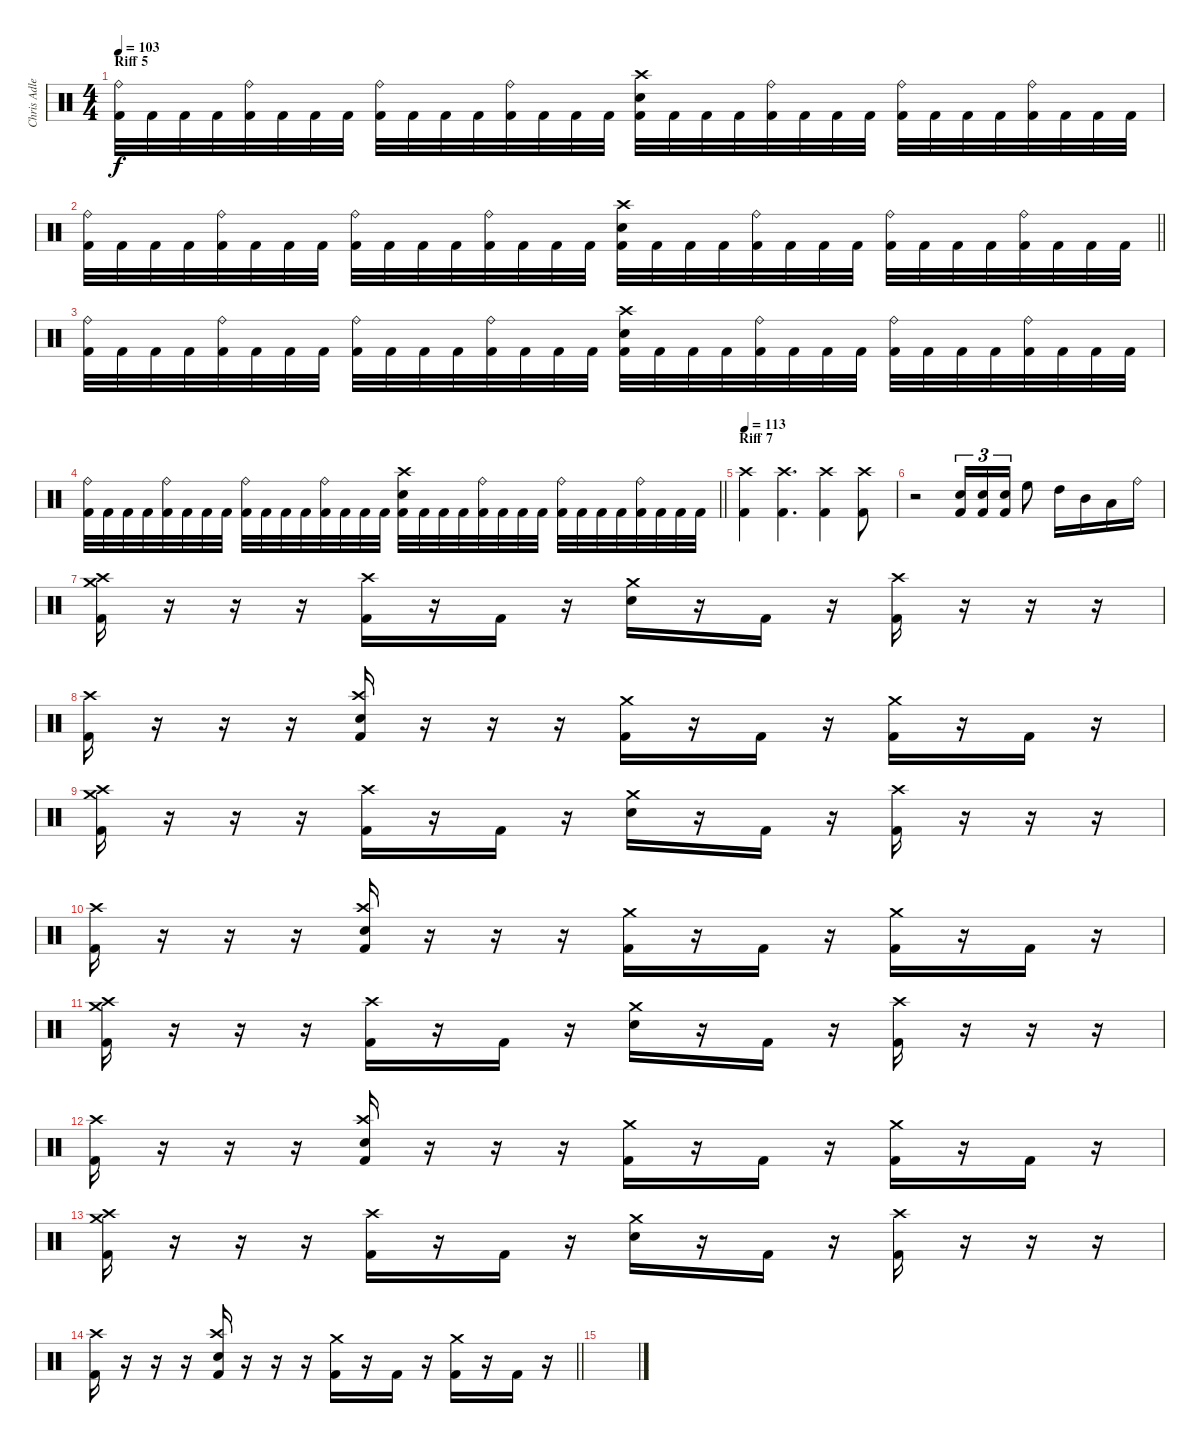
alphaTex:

\track ("Chris Adler" "Chris Adle") {instrument percussion}
\staff {score}
\articulation defaults
\ts (4 4)
\section ("" "Riff 5")
\tempo 103
\clef neutral
\ks c
("Ride (bell)" "Kick (hit) 2").32{dy f} "Kick (hit) 2".32 "Kick (hit) 2".32 "Kick (hit) 2".32 ("Ride (bell)" "Kick (hit) 2").32 "Kick (hit) 2".32 "Kick (hit) 2".32 "Kick (hit) 2".32 ("Ride (bell)" "Kick (hit) 2").32 "Kick (hit) 2".32 "Kick (hit) 2".32 "Kick (hit) 2".32 ("Ride (bell)" "Kick (hit) 2").32 "Kick (hit) 2".32 "Kick (hit) 2".32 "Kick (hit) 2".32 ("Crash high (hit)" "Electric Snare (hit)" "Kick (hit) 2").32 "Kick (hit) 2".32 "Kick (hit) 2".32 "Kick (hit) 2".32 ("Ride (bell)" "Kick (hit) 2").32 "Kick (hit) 2".32 "Kick (hit) 2".32 "Kick (hit) 2".32 ("Ride (bell)" "Kick (hit) 2").32 "Kick (hit) 2".32 "Kick (hit) 2".32 "Kick (hit) 2".32 ("Ride (bell)" "Kick (hit) 2").32 "Kick (hit) 2".32 "Kick (hit) 2".32 "Kick (hit) 2".32 |
\barLineRight lightlight
("Ride (bell)" "Kick (hit) 2").32 "Kick (hit) 2".32 "Kick (hit) 2".32 "Kick (hit) 2".32 ("Ride (bell)" "Kick (hit) 2").32 "Kick (hit) 2".32 "Kick (hit) 2".32 "Kick (hit) 2".32 ("Ride (bell)" "Kick (hit) 2").32 "Kick (hit) 2".32 "Kick (hit) 2".32 "Kick (hit) 2".32 ("Ride (bell)" "Kick (hit) 2").32 "Kick (hit) 2".32 "Kick (hit) 2".32 "Kick (hit) 2".32 ("Crash high (hit)" "Electric Snare (hit)" "Kick (hit) 2").32 "Kick (hit) 2".32 "Kick (hit) 2".32 "Kick (hit) 2".32 ("Ride (bell)" "Kick (hit) 2").32 "Kick (hit) 2".32 "Kick (hit) 2".32 "Kick (hit) 2".32 ("Ride (bell)" "Kick (hit) 2").32 "Kick (hit) 2".32 "Kick (hit) 2".32 "Kick (hit) 2".32 ("Ride (bell)" "Kick (hit) 2").32 "Kick (hit) 2".32 "Kick (hit) 2".32 "Kick (hit) 2".32 |
("Ride (bell)" "Kick (hit) 2").32 "Kick (hit) 2".32 "Kick (hit) 2".32 "Kick (hit) 2".32 ("Ride (bell)" "Kick (hit) 2").32 "Kick (hit) 2".32 "Kick (hit) 2".32 "Kick (hit) 2".32 ("Ride (bell)" "Kick (hit) 2").32 "Kick (hit) 2".32 "Kick (hit) 2".32 "Kick (hit) 2".32 ("Ride (bell)" "Kick (hit) 2").32 "Kick (hit) 2".32 "Kick (hit) 2".32 "Kick (hit) 2".32 ("Crash high (hit)" "Electric Snare (hit)" "Kick (hit) 2").32 "Kick (hit) 2".32 "Kick (hit) 2".32 "Kick (hit) 2".32 ("Ride (bell)" "Kick (hit) 2").32 "Kick (hit) 2".32 "Kick (hit) 2".32 "Kick (hit) 2".32 ("Ride (bell)" "Kick (hit) 2").32 "Kick (hit) 2".32 "Kick (hit) 2".32 "Kick (hit) 2".32 ("Ride (bell)" "Kick (hit) 2").32 "Kick (hit) 2".32 "Kick (hit) 2".32 "Kick (hit) 2".32 |
\barLineRight lightlight
("Ride (bell)" "Kick (hit) 2").32 "Kick (hit) 2".32 "Kick (hit) 2".32 "Kick (hit) 2".32 ("Ride (bell)" "Kick (hit) 2").32 "Kick (hit) 2".32 "Kick (hit) 2".32 "Kick (hit) 2".32 ("Ride (bell)" "Kick (hit) 2").32 "Kick (hit) 2".32 "Kick (hit) 2".32 "Kick (hit) 2".32 ("Ride (bell)" "Kick (hit) 2").32 "Kick (hit) 2".32 "Kick (hit) 2".32 "Kick (hit) 2".32 ("Crash high (hit)" "Electric Snare (hit)" "Kick (hit) 2").32 "Kick (hit) 2".32 "Kick (hit) 2".32 "Kick (hit) 2".32 ("Ride (bell)" "Kick (hit) 2").32 "Kick (hit) 2".32 "Kick (hit) 2".32 "Kick (hit) 2".32 ("Ride (bell)" "Kick (hit) 2").32 "Kick (hit) 2".32 "Kick (hit) 2".32 "Kick (hit) 2".32 ("Ride (bell)" "Kick (hit) 2").32 "Kick (hit) 2".32 "Kick (hit) 2".32 "Kick (hit) 2".32 |
\section ("" "Riff 7")
\tempo 113
("Crash high (hit)" "Kick (hit) 2").4 ("Crash high (hit)" "Kick (hit) 2").4{d} ("Crash high (hit)" "Kick (hit) 2").4 ("Crash high (hit)" "Kick (hit) 2").8 |
r.2 ("Electric Snare (hit)" "Kick (hit) 2").16{tu (3 2)} ("Electric Snare (hit)" "Kick (hit) 2").16{tu (3 2)} ("Electric Snare (hit)" "Kick (hit) 2").16{tu (3 2)} "High Floor Tom (hit)".8 "High Tom (hit)".16 "Mid Tom (hit)".16 "Low Tom (hit)".16 "Ride (bell)".16 |
("Crash high (hit)" "Crash medium (hit)" "Kick (hit) 2").16 r.16 r.16 r.16 ("Crash high (hit)" "Kick (hit) 2").16 r.16 "Kick (hit) 2".16 r.16 ("Crash medium (hit)" "Electric Snare (hit)").16 r.16 "Kick (hit) 2".16 r.16 ("Crash high (hit)" "Kick (hit) 2").16 r.16 r.16 r.16 |
("Crash high (hit)" "Kick (hit) 2").16 r.16 r.16 r.16 ("Crash high (hit)" "Electric Snare (hit)" "Kick (hit) 2").16 r.16 r.16 r.16 ("Crash medium (hit)" "Kick (hit) 2").16 r.16 "Kick (hit) 2".16 r.16 ("Crash medium (hit)" "Kick (hit) 2").16 r.16 "Kick (hit) 2".16 r.16 |
("Crash high (hit)" "Crash medium (hit)" "Kick (hit) 2").16 r.16 r.16 r.16 ("Crash high (hit)" "Kick (hit) 2").16 r.16 "Kick (hit) 2".16 r.16 ("Crash medium (hit)" "Electric Snare (hit)").16 r.16 "Kick (hit) 2".16 r.16 ("Crash high (hit)" "Kick (hit) 2").16 r.16 r.16 r.16 |
("Crash high (hit)" "Kick (hit) 2").16 r.16 r.16 r.16 ("Crash high (hit)" "Electric Snare (hit)" "Kick (hit) 2").16 r.16 r.16 r.16 ("Crash medium (hit)" "Kick (hit) 2").16 r.16 "Kick (hit) 2".16 r.16 ("Crash medium (hit)" "Kick (hit) 2").16 r.16 "Kick (hit) 2".16 r.16 |
("Crash high (hit)" "Crash medium (hit)" "Kick (hit) 2").16 r.16 r.16 r.16 ("Crash high (hit)" "Kick (hit) 2").16 r.16 "Kick (hit) 2".16 r.16 ("Crash medium (hit)" "Electric Snare (hit)").16 r.16 "Kick (hit) 2".16 r.16 ("Crash high (hit)" "Kick (hit) 2").16 r.16 r.16 r.16 |
("Crash high (hit)" "Kick (hit) 2").16 r.16 r.16 r.16 ("Crash high (hit)" "Electric Snare (hit)" "Kick (hit) 2").16 r.16 r.16 r.16 ("Crash medium (hit)" "Kick (hit) 2").16 r.16 "Kick (hit) 2".16 r.16 ("Crash medium (hit)" "Kick (hit) 2").16 r.16 "Kick (hit) 2".16 r.16 |
("Crash high (hit)" "Crash medium (hit)" "Kick (hit) 2").16 r.16 r.16 r.16 ("Crash high (hit)" "Kick (hit) 2").16 r.16 "Kick (hit) 2".16 r.16 ("Crash medium (hit)" "Electric Snare (hit)").16 r.16 "Kick (hit) 2".16 r.16 ("Crash high (hit)" "Kick (hit) 2").16 r.16 r.16 r.16 |
\barLineRight lightlight
("Crash high (hit)" "Kick (hit) 2").16 r.16 r.16 r.16 ("Crash high (hit)" "Electric Snare (hit)" "Kick (hit) 2").16 r.16 r.16 r.16 ("Crash medium (hit)" "Kick (hit) 2").16 r.16 "Kick (hit) 2".16 r.16 ("Crash medium (hit)" "Kick (hit) 2").16 r.16 "Kick (hit) 2".16 r.16 |
\section ("" "")
